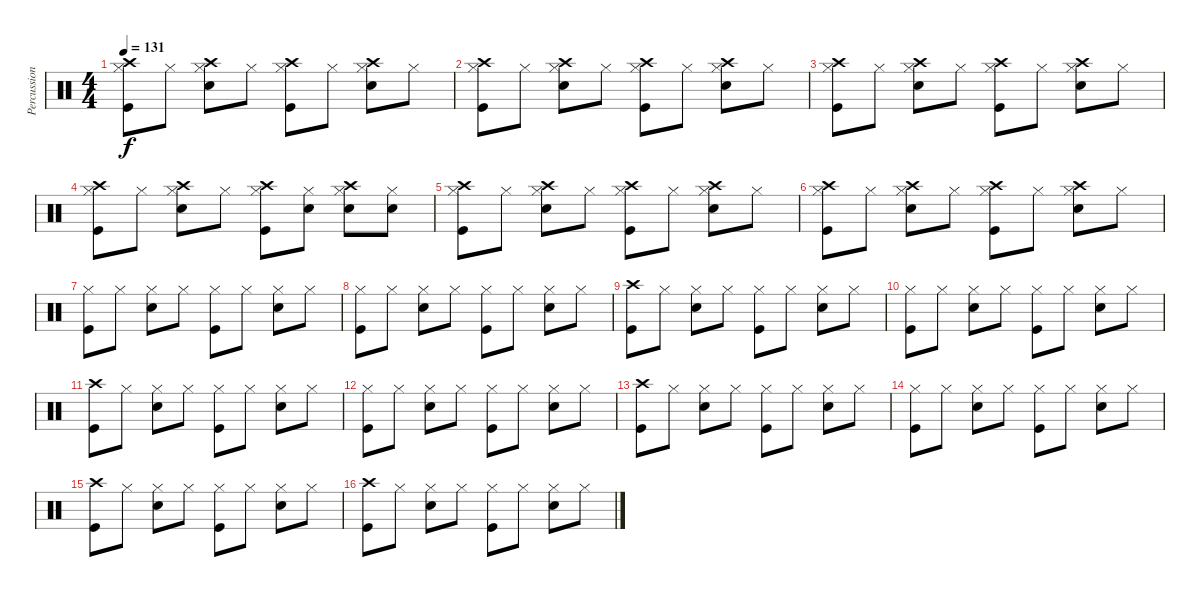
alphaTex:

\track ("Percussion" "Percussion") {instrument percussion}
\staff {score}
\articulation defaults
\ts (4 4)
\tempo 131
\clef neutral
\ks c
("Hi-Hat (closed)" "Kick (hit)" "Crash high (hit)").8{dy f} "Hi-Hat (closed)".8 ("Hi-Hat (closed)" "Snare (hit) 2" "Crash high (hit)").8 "Hi-Hat (closed)".8 ("Hi-Hat (closed)" "Kick (hit)" "Crash high (hit)").8 "Hi-Hat (closed)".8 ("Hi-Hat (closed)" "Snare (hit) 2" "Crash high (hit)").8 "Hi-Hat (closed)".8 |
("Hi-Hat (closed)" "Kick (hit)" "Crash high (hit)").8 "Hi-Hat (closed)".8 ("Hi-Hat (closed)" "Snare (hit) 2" "Crash high (hit)").8 "Hi-Hat (closed)".8 ("Hi-Hat (closed)" "Kick (hit)" "Crash high (hit)").8 "Hi-Hat (closed)".8 ("Hi-Hat (closed)" "Snare (hit) 2" "Crash high (hit)").8 "Hi-Hat (closed)".8 |
("Hi-Hat (closed)" "Kick (hit)" "Crash high (hit)").8 "Hi-Hat (closed)".8 ("Hi-Hat (closed)" "Snare (hit) 2" "Crash high (hit)").8 "Hi-Hat (closed)".8 ("Hi-Hat (closed)" "Kick (hit)" "Crash high (hit)").8 "Hi-Hat (closed)".8 ("Hi-Hat (closed)" "Snare (hit) 2" "Crash high (hit)").8 "Hi-Hat (closed)".8 |
("Hi-Hat (closed)" "Kick (hit)" "Crash high (hit)").8 "Hi-Hat (closed)".8 ("Hi-Hat (closed)" "Snare (hit) 2" "Crash high (hit)").8 "Hi-Hat (closed)".8 ("Hi-Hat (closed)" "Kick (hit)" "Crash high (hit)").8 ("Hi-Hat (closed)" "Snare (hit) 2").8 ("Hi-Hat (closed)" "Snare (hit) 2" "Crash high (hit)").8 ("Hi-Hat (closed)" "Snare (hit) 2").8 |
("Hi-Hat (closed)" "Kick (hit)" "Crash high (hit)").8 "Hi-Hat (closed)".8 ("Hi-Hat (closed)" "Snare (hit) 2" "Crash high (hit)").8 "Hi-Hat (closed)".8 ("Hi-Hat (closed)" "Kick (hit)" "Crash high (hit)").8 "Hi-Hat (closed)".8 ("Hi-Hat (closed)" "Snare (hit) 2" "Crash high (hit)").8 "Hi-Hat (closed)".8 |
("Hi-Hat (closed)" "Kick (hit)" "Crash high (hit)").8 "Hi-Hat (closed)".8 ("Hi-Hat (closed)" "Snare (hit) 2" "Crash high (hit)").8 "Hi-Hat (closed)".8 ("Hi-Hat (closed)" "Kick (hit)" "Crash high (hit)").8 "Hi-Hat (closed)".8 ("Hi-Hat (closed)" "Snare (hit) 2" "Crash high (hit)").8 "Hi-Hat (closed)".8 |
("Hi-Hat (closed)" "Kick (hit)").8 "Hi-Hat (closed)".8 ("Hi-Hat (closed)" "Snare (hit) 2").8 "Hi-Hat (closed)".8 ("Hi-Hat (closed)" "Kick (hit)").8 "Hi-Hat (closed)".8 ("Hi-Hat (closed)" "Snare (hit) 2").8 "Hi-Hat (closed)".8 |
("Hi-Hat (closed)" "Kick (hit)").8 "Hi-Hat (closed)".8 ("Hi-Hat (closed)" "Snare (hit) 2").8 "Hi-Hat (closed)".8 ("Hi-Hat (closed)" "Kick (hit)").8 "Hi-Hat (closed)".8 ("Hi-Hat (closed)" "Snare (hit) 2").8 "Hi-Hat (closed)".8 |
("Crash high (hit)" "Kick (hit)").8 "Hi-Hat (closed)".8 ("Hi-Hat (closed)" "Snare (hit) 2").8 "Hi-Hat (closed)".8 ("Hi-Hat (closed)" "Kick (hit)").8 "Hi-Hat (closed)".8 ("Hi-Hat (closed)" "Snare (hit) 2").8 "Hi-Hat (closed)".8 |
("Hi-Hat (closed)" "Kick (hit)").8 "Hi-Hat (closed)".8 ("Hi-Hat (closed)" "Snare (hit) 2").8 "Hi-Hat (closed)".8 ("Hi-Hat (closed)" "Kick (hit)").8 "Hi-Hat (closed)".8 ("Hi-Hat (closed)" "Snare (hit) 2").8 "Hi-Hat (closed)".8 |
("Crash high (hit)" "Kick (hit)").8 "Hi-Hat (closed)".8 ("Hi-Hat (closed)" "Snare (hit) 2").8 "Hi-Hat (closed)".8 ("Hi-Hat (closed)" "Kick (hit)").8 "Hi-Hat (closed)".8 ("Hi-Hat (closed)" "Snare (hit) 2").8 "Hi-Hat (closed)".8 |
("Hi-Hat (closed)" "Kick (hit)").8 "Hi-Hat (closed)".8 ("Hi-Hat (closed)" "Snare (hit) 2").8 "Hi-Hat (closed)".8 ("Hi-Hat (closed)" "Kick (hit)").8 "Hi-Hat (closed)".8 ("Hi-Hat (closed)" "Snare (hit) 2").8 "Hi-Hat (closed)".8 |
("Crash high (hit)" "Kick (hit)").8 "Hi-Hat (closed)".8 ("Hi-Hat (closed)" "Snare (hit) 2").8 "Hi-Hat (closed)".8 ("Hi-Hat (closed)" "Kick (hit)").8 "Hi-Hat (closed)".8 ("Hi-Hat (closed)" "Snare (hit) 2").8 "Hi-Hat (closed)".8 |
("Hi-Hat (closed)" "Kick (hit)").8 "Hi-Hat (closed)".8 ("Hi-Hat (closed)" "Snare (hit) 2").8 "Hi-Hat (closed)".8 ("Hi-Hat (closed)" "Kick (hit)").8 "Hi-Hat (closed)".8 ("Hi-Hat (closed)" "Snare (hit) 2").8 "Hi-Hat (closed)".8 |
("Crash high (hit)" "Kick (hit)").8 "Hi-Hat (closed)".8 ("Hi-Hat (closed)" "Snare (hit) 2").8 "Hi-Hat (closed)".8 ("Hi-Hat (closed)" "Kick (hit)").8 "Hi-Hat (closed)".8 ("Hi-Hat (closed)" "Snare (hit) 2").8 "Hi-Hat (closed)".8 |
("Crash high (hit)" "Kick (hit)").8 "Hi-Hat (closed)".8 ("Hi-Hat (closed)" "Snare (hit) 2").8 "Hi-Hat (closed)".8 ("Hi-Hat (closed)" "Kick (hit)").8 "Hi-Hat (closed)".8 ("Hi-Hat (closed)" "Snare (hit) 2").8 "Hi-Hat (closed)".8
